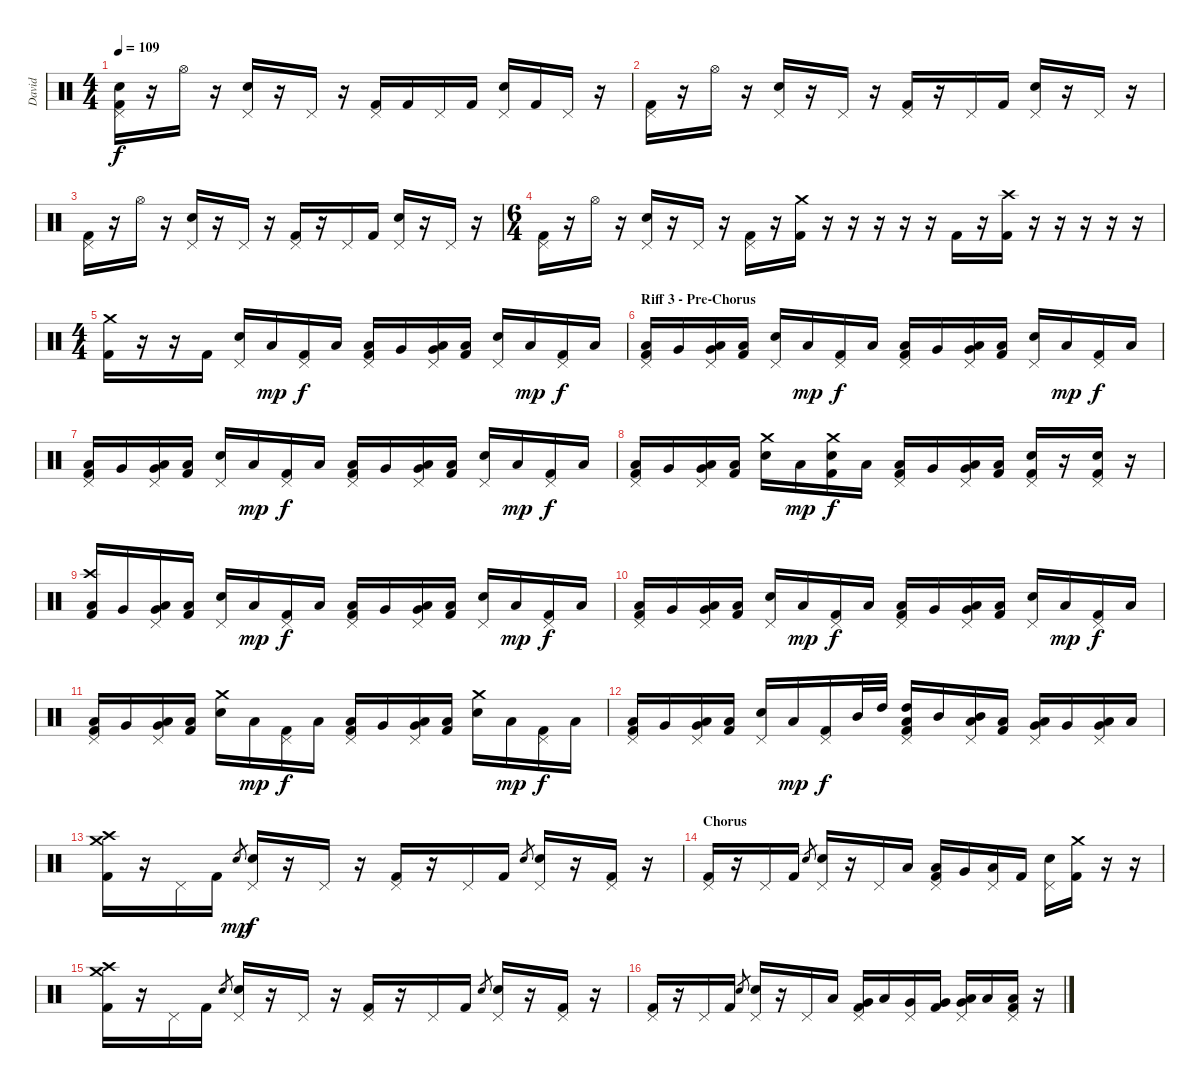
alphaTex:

\track ("David" "David") {instrument percussion}
\staff {score}
\articulation defaults
\ts (4 4)
\tempo 109
\clef neutral
\ks c
("Pedal Hi-Hat (hit)" "Snare (hit) 2" "Kick (hit) 2").16{dy f} r.16 "Hi-Hat (open)".16 r.16 ("Pedal Hi-Hat (hit)" "Snare (hit) 2").16 r.16 "Pedal Hi-Hat (hit)".16 r.16 ("Pedal Hi-Hat (hit)" "Kick (hit) 2").16 "Kick (hit) 2".16 "Pedal Hi-Hat (hit)".16 "Kick (hit) 2".16 ("Pedal Hi-Hat (hit)" "Snare (hit) 2").16 "Kick (hit) 2".16 "Pedal Hi-Hat (hit)".16 r.16 |
("Pedal Hi-Hat (hit)" "Kick (hit) 2").16 r.16 "Hi-Hat (open)".16 r.16 ("Pedal Hi-Hat (hit)" "Snare (hit) 2").16 r.16 "Pedal Hi-Hat (hit)".16 r.16 ("Pedal Hi-Hat (hit)" "Kick (hit) 2").16 r.16 "Pedal Hi-Hat (hit)".16 "Kick (hit) 2".16 ("Pedal Hi-Hat (hit)" "Snare (hit) 2").16 r.16 "Pedal Hi-Hat (hit)".16 r.16 |
("Pedal Hi-Hat (hit)" "Kick (hit) 2").16 r.16 "Hi-Hat (open)".16 r.16 ("Pedal Hi-Hat (hit)" "Snare (hit) 2").16 r.16 "Pedal Hi-Hat (hit)".16 r.16 ("Pedal Hi-Hat (hit)" "Kick (hit) 2").16 r.16 "Pedal Hi-Hat (hit)".16 "Kick (hit) 2".16 ("Pedal Hi-Hat (hit)" "Snare (hit) 2").16 r.16 "Pedal Hi-Hat (hit)".16 r.16 |
\ts (6 4)
("Pedal Hi-Hat (hit)" "Kick (hit) 2").16 r.16 "Hi-Hat (open)".16 r.16 ("Pedal Hi-Hat (hit)" "Snare (hit) 2").16 r.16 "Pedal Hi-Hat (hit)".16 r.16 ("Pedal Hi-Hat (hit)" "Kick (hit) 2").16 r.16 ("Crash medium (hit)" "Kick (hit) 2").16 r.16 r.16 r.16 r.16 r.16 "Kick (hit) 2".16 r.16 ("Crash high (hit)" "Kick (hit) 2").16 r.16 r.16 r.16 r.16 r.16 |
\ts (4 4)
("Crash medium (hit)" "Kick (hit) 2").16 r.16 r.16 "Kick (hit) 2".16 ("Pedal Hi-Hat (hit)" "Snare (hit) 2").16 "Low Floor Tom (hit)".16{dy mp} ("Pedal Hi-Hat (hit)" "Kick (hit) 2").16{dy f} "Low Tom (hit)".16 ("Pedal Hi-Hat (hit)" "Low Tom (hit)" "Kick (hit) 2").16 "Very Low Tom (hit)".16 ("Pedal Hi-Hat (hit)" "Very Low Tom (hit)" "Low Floor Tom (hit)").16 ("Low Floor Tom (hit)" "Kick (hit) 2").16 ("Pedal Hi-Hat (hit)" "Snare (hit) 2").16 "Low Floor Tom (hit)".16{dy mp} ("Pedal Hi-Hat (hit)" "Kick (hit) 2").16{dy f} "Low Tom (hit)".16 |
\section ("" "Riff 3 - Pre-Chorus")
("Pedal Hi-Hat (hit)" "Low Tom (hit)" "Kick (hit) 2").16 "Very Low Tom (hit)".16 ("Pedal Hi-Hat (hit)" "Very Low Tom (hit)" "Low Floor Tom (hit)").16 ("Low Floor Tom (hit)" "Kick (hit) 2").16 ("Pedal Hi-Hat (hit)" "Snare (hit) 2").16 "Low Floor Tom (hit)".16{dy mp} ("Pedal Hi-Hat (hit)" "Kick (hit) 2").16{dy f} "Low Tom (hit)".16 ("Pedal Hi-Hat (hit)" "Low Tom (hit)" "Kick (hit) 2").16 "Very Low Tom (hit)".16 ("Pedal Hi-Hat (hit)" "Very Low Tom (hit)" "Low Floor Tom (hit)").16 ("Low Floor Tom (hit)" "Kick (hit) 2").16 ("Pedal Hi-Hat (hit)" "Snare (hit) 2").16 "Low Floor Tom (hit)".16{dy mp} ("Pedal Hi-Hat (hit)" "Kick (hit) 2").16{dy f} "Low Tom (hit)".16 |
("Pedal Hi-Hat (hit)" "Low Tom (hit)" "Kick (hit) 2").16 "Very Low Tom (hit)".16 ("Pedal Hi-Hat (hit)" "Very Low Tom (hit)" "Low Floor Tom (hit)").16 ("Low Floor Tom (hit)" "Kick (hit) 2").16 ("Pedal Hi-Hat (hit)" "Snare (hit) 2").16 "Low Floor Tom (hit)".16{dy mp} ("Pedal Hi-Hat (hit)" "Kick (hit) 2").16{dy f} "Low Tom (hit)".16 ("Pedal Hi-Hat (hit)" "Low Tom (hit)" "Kick (hit) 2").16 "Very Low Tom (hit)".16 ("Pedal Hi-Hat (hit)" "Very Low Tom (hit)" "Low Floor Tom (hit)").16 ("Low Floor Tom (hit)" "Kick (hit) 2").16 ("Pedal Hi-Hat (hit)" "Snare (hit) 2").16 "Low Floor Tom (hit)".16{dy mp} ("Pedal Hi-Hat (hit)" "Kick (hit) 2").16{dy f} "Low Tom (hit)".16 |
("Pedal Hi-Hat (hit)" "Low Tom (hit)" "Kick (hit) 2").16 "Very Low Tom (hit)".16 ("Pedal Hi-Hat (hit)" "Very Low Tom (hit)" "Low Floor Tom (hit)").16 ("Low Floor Tom (hit)" "Kick (hit) 2").16 ("Crash medium (hit)" "Snare (hit) 2").16 "Low Floor Tom (hit)".16{dy mp} ("Crash medium (hit)" "Snare (hit) 2" "Kick (hit) 2").16{dy f} "Low Tom (hit)".16 ("Pedal Hi-Hat (hit)" "Low Tom (hit)" "Kick (hit) 2").16 "Very Low Tom (hit)".16 ("Pedal Hi-Hat (hit)" "Very Low Tom (hit)" "Low Floor Tom (hit)").16 ("Low Floor Tom (hit)" "Kick (hit) 2").16 ("Pedal Hi-Hat (hit)" "Snare (hit) 2" "Kick (hit) 2").16 r.16 ("Pedal Hi-Hat (hit)" "Snare (hit) 2" "Kick (hit) 2").16 r.16 |
("Crash high (hit)" "Low Tom (hit)" "Kick (hit) 2").16 "Very Low Tom (hit)".16 ("Pedal Hi-Hat (hit)" "Very Low Tom (hit)" "Low Floor Tom (hit)").16 ("Low Floor Tom (hit)" "Kick (hit) 2").16 ("Pedal Hi-Hat (hit)" "Snare (hit) 2").16 "Low Floor Tom (hit)".16{dy mp} ("Pedal Hi-Hat (hit)" "Kick (hit) 2").16{dy f} "Low Tom (hit)".16 ("Pedal Hi-Hat (hit)" "Low Tom (hit)" "Kick (hit) 2").16 "Very Low Tom (hit)".16 ("Pedal Hi-Hat (hit)" "Very Low Tom (hit)" "Low Floor Tom (hit)").16 ("Low Floor Tom (hit)" "Kick (hit) 2").16 ("Pedal Hi-Hat (hit)" "Snare (hit) 2").16 "Low Floor Tom (hit)".16{dy mp} ("Pedal Hi-Hat (hit)" "Kick (hit) 2").16{dy f} "Low Tom (hit)".16 |
("Pedal Hi-Hat (hit)" "Low Tom (hit)" "Kick (hit) 2").16 "Very Low Tom (hit)".16 ("Pedal Hi-Hat (hit)" "Very Low Tom (hit)" "Low Floor Tom (hit)").16 ("Low Floor Tom (hit)" "Kick (hit) 2").16 ("Pedal Hi-Hat (hit)" "Snare (hit) 2").16 "Low Floor Tom (hit)".16{dy mp} ("Pedal Hi-Hat (hit)" "Kick (hit) 2").16{dy f} "Low Tom (hit)".16 ("Pedal Hi-Hat (hit)" "Low Tom (hit)" "Kick (hit) 2").16 "Very Low Tom (hit)".16 ("Pedal Hi-Hat (hit)" "Very Low Tom (hit)" "Low Floor Tom (hit)").16 ("Low Floor Tom (hit)" "Kick (hit) 2").16 ("Pedal Hi-Hat (hit)" "Snare (hit) 2").16 "Low Floor Tom (hit)".16{dy mp} ("Pedal Hi-Hat (hit)" "Kick (hit) 2").16{dy f} "Low Tom (hit)".16 |
("Pedal Hi-Hat (hit)" "Low Tom (hit)" "Kick (hit) 2").16 "Very Low Tom (hit)".16 ("Pedal Hi-Hat (hit)" "Very Low Tom (hit)" "Low Floor Tom (hit)").16 ("Low Floor Tom (hit)" "Kick (hit) 2").16 ("Crash medium (hit)" "Snare (hit) 2").16 "Low Floor Tom (hit)".16{dy mp} ("Pedal Hi-Hat (hit)" "Kick (hit) 2").16{dy f} "Low Tom (hit)".16 ("Pedal Hi-Hat (hit)" "Low Tom (hit)" "Kick (hit) 2").16 "Very Low Tom (hit)".16 ("Pedal Hi-Hat (hit)" "Very Low Tom (hit)" "Low Floor Tom (hit)").16 ("Low Floor Tom (hit)" "Kick (hit) 2").16 ("Crash medium (hit)" "Snare (hit) 2").16 "Low Floor Tom (hit)".16{dy mp} ("Pedal Hi-Hat (hit)" "Kick (hit) 2").16{dy f} "Low Tom (hit)".16 |
("Pedal Hi-Hat (hit)" "Low Tom (hit)" "Kick (hit) 2").16 "Very Low Tom (hit)".16 ("Pedal Hi-Hat (hit)" "Very Low Tom (hit)" "Low Floor Tom (hit)").16 ("Low Floor Tom (hit)" "Kick (hit) 2").16 ("Pedal Hi-Hat (hit)" "Snare (hit) 2").16 "Low Floor Tom (hit)".16{dy mp} ("Pedal Hi-Hat (hit)" "Kick (hit) 2").16{dy f} "Mid Tom (hit)".32 "High Tom (hit)".32 ("Pedal Hi-Hat (hit)" "High Tom (hit)" "Low Tom (hit)" "Kick (hit) 2").16 "Mid Tom (hit)".16 ("Pedal Hi-Hat (hit)" "Mid Tom (hit)" "Low Tom (hit)").16 ("Low Tom (hit)" "Kick (hit) 2").16 ("Pedal Hi-Hat (hit)" "Very Low Tom (hit)" "Low Tom (hit)").16 "Very Low Tom (hit)".16 ("Pedal Hi-Hat (hit)" "Very Low Tom (hit)" "Low Floor Tom (hit)").16 "Low Floor Tom (hit)".16 |
("Crash medium (hit)" "Crash high (hit)" "Kick (hit) 2").16 r.16 "Pedal Hi-Hat (hit)".16 "Kick (hit) 2".16 "Snare (hit) 2".8{gr dy mp} ("Pedal Hi-Hat (hit)" "Snare (hit) 2").16{dy f} r.16 "Pedal Hi-Hat (hit)".16 r.16 ("Pedal Hi-Hat (hit)" "Kick (hit) 2").16 r.16 "Pedal Hi-Hat (hit)".16 "Kick (hit) 2".16 "Snare (hit) 2".8{gr} ("Pedal Hi-Hat (hit)" "Snare (hit) 2").16 r.16 ("Pedal Hi-Hat (hit)" "Kick (hit) 2").16 r.16 |
\section ("" "Chorus")
("Pedal Hi-Hat (hit)" "Kick (hit) 2").16 r.16 "Pedal Hi-Hat (hit)".16 "Kick (hit) 2".16 "Snare (hit) 2".8{gr} ("Pedal Hi-Hat (hit)" "Snare (hit) 2").16 r.16 "Pedal Hi-Hat (hit)".16 "Low Tom (hit)".16 ("Pedal Hi-Hat (hit)" "Low Tom (hit)" "Kick (hit) 2").16 "Very Low Tom (hit)".16 ("Pedal Hi-Hat (hit)" "Low Floor Tom (hit)").16 "Kick (hit) 2".16 ("Pedal Hi-Hat (hit)" "Snare (hit) 2").16 ("Crash medium (hit)" "Kick (hit) 2").16 r.16 r.16 |
("Crash medium (hit)" "Crash high (hit)" "Kick (hit) 2").16 r.16 "Pedal Hi-Hat (hit)".16 "Kick (hit) 2".16 "Snare (hit) 2".8{gr} ("Pedal Hi-Hat (hit)" "Snare (hit) 2").16 r.16 "Pedal Hi-Hat (hit)".16 r.16 ("Pedal Hi-Hat (hit)" "Kick (hit) 2").16 r.16 "Pedal Hi-Hat (hit)".16 "Kick (hit) 2".16 "Snare (hit) 2".8{gr} ("Pedal Hi-Hat (hit)" "Snare (hit) 2").16 r.16 ("Pedal Hi-Hat (hit)" "Kick (hit) 2").16 r.16 |
("Pedal Hi-Hat (hit)" "Kick (hit) 2").16 r.16 "Pedal Hi-Hat (hit)".16 "Kick (hit) 2".16 "Snare (hit) 2".8{gr} ("Pedal Hi-Hat (hit)" "Snare (hit) 2").16 r.16 "Pedal Hi-Hat (hit)".16 "Low Tom (hit)".16 ("Pedal Hi-Hat (hit)" "Very Low Tom (hit)" "Kick (hit) 2").16 "Low Tom (hit)".16 ("Pedal Hi-Hat (hit)" "Very Low Tom (hit)").16 ("Very Low Tom (hit)" "Kick (hit) 2").16 ("Pedal Hi-Hat (hit)" "Very Low Tom (hit)" "Low Floor Tom (hit)").16 "Low Floor Tom (hit)".16 ("Pedal Hi-Hat (hit)" "Low Floor Tom (hit)" "Kick (hit) 2").16 r.16
